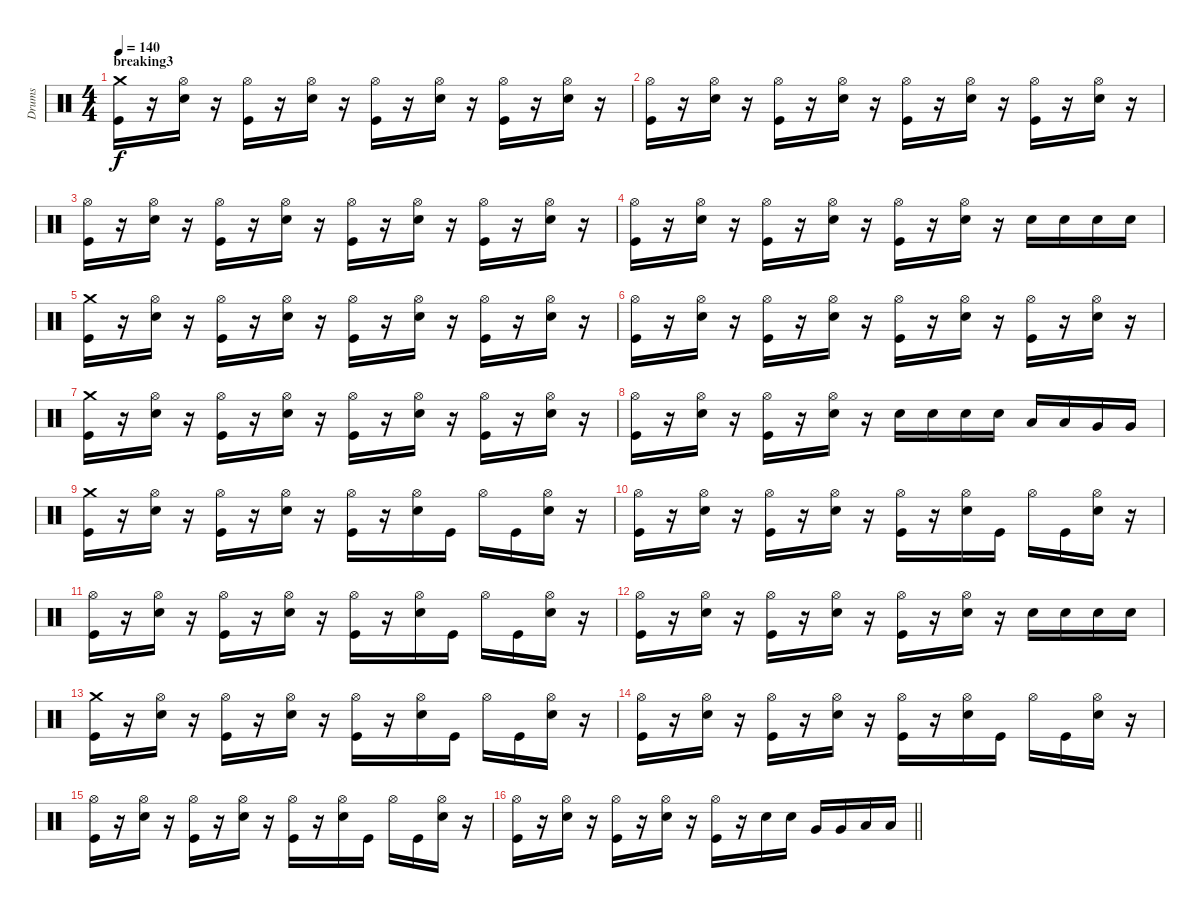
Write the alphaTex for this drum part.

\track ("Drums" "Drums") {instrument percussion}
\staff {score}
\articulation defaults
\ts (4 4)
\section ("" "breaking3")
\tempo 140
\clef neutral
\ks c
("Crash medium (hit)" "Kick (hit)").16{dy f} r.16 ("Hi-Hat (open)" "Snare (hit) 2").16 r.16 ("Hi-Hat (open)" "Kick (hit)").16 r.16 ("Hi-Hat (open)" "Snare (hit) 2").16 r.16 ("Hi-Hat (open)" "Kick (hit)").16 r.16 ("Hi-Hat (open)" "Snare (hit) 2").16 r.16 ("Hi-Hat (open)" "Kick (hit)").16 r.16 ("Hi-Hat (open)" "Snare (hit) 2").16 r.16 |
("Hi-Hat (open)" "Kick (hit)").16 r.16 ("Hi-Hat (open)" "Snare (hit) 2").16 r.16 ("Hi-Hat (open)" "Kick (hit)").16 r.16 ("Hi-Hat (open)" "Snare (hit) 2").16 r.16 ("Hi-Hat (open)" "Kick (hit)").16 r.16 ("Hi-Hat (open)" "Snare (hit) 2").16 r.16 ("Hi-Hat (open)" "Kick (hit)").16 r.16 ("Hi-Hat (open)" "Snare (hit) 2").16 r.16 |
("Hi-Hat (open)" "Kick (hit)").16 r.16 ("Hi-Hat (open)" "Snare (hit) 2").16 r.16 ("Hi-Hat (open)" "Kick (hit)").16 r.16 ("Hi-Hat (open)" "Snare (hit) 2").16 r.16 ("Hi-Hat (open)" "Kick (hit)").16 r.16 ("Hi-Hat (open)" "Snare (hit) 2").16 r.16 ("Hi-Hat (open)" "Kick (hit)").16 r.16 ("Hi-Hat (open)" "Snare (hit) 2").16 r.16 |
("Hi-Hat (open)" "Kick (hit)").16 r.16 ("Hi-Hat (open)" "Snare (hit) 2").16 r.16 ("Hi-Hat (open)" "Kick (hit)").16 r.16 ("Hi-Hat (open)" "Snare (hit) 2").16 r.16 ("Hi-Hat (open)" "Kick (hit)").16 r.16 ("Hi-Hat (open)" "Snare (hit) 2").16 r.16 "Snare (hit) 2".16 "Snare (hit) 2".16 "Snare (hit) 2".16 "Snare (hit) 2".16 |
("Crash medium (hit)" "Kick (hit)").16 r.16 ("Hi-Hat (open)" "Snare (hit) 2").16 r.16 ("Hi-Hat (open)" "Kick (hit)").16 r.16 ("Hi-Hat (open)" "Snare (hit) 2").16 r.16 ("Hi-Hat (open)" "Kick (hit)").16 r.16 ("Hi-Hat (open)" "Snare (hit) 2").16 r.16 ("Hi-Hat (open)" "Kick (hit)").16 r.16 ("Hi-Hat (open)" "Snare (hit) 2").16 r.16 |
("Hi-Hat (open)" "Kick (hit)").16 r.16 ("Hi-Hat (open)" "Snare (hit) 2").16 r.16 ("Hi-Hat (open)" "Kick (hit)").16 r.16 ("Hi-Hat (open)" "Snare (hit) 2").16 r.16 ("Hi-Hat (open)" "Kick (hit)").16 r.16 ("Hi-Hat (open)" "Snare (hit) 2").16 r.16 ("Hi-Hat (open)" "Kick (hit)").16 r.16 ("Hi-Hat (open)" "Snare (hit) 2").16 r.16 |
("Crash medium (hit)" "Kick (hit)").16 r.16 ("Hi-Hat (open)" "Snare (hit) 2").16 r.16 ("Hi-Hat (open)" "Kick (hit)").16 r.16 ("Hi-Hat (open)" "Snare (hit) 2").16 r.16 ("Hi-Hat (open)" "Kick (hit)").16 r.16 ("Hi-Hat (open)" "Snare (hit) 2").16 r.16 ("Hi-Hat (open)" "Kick (hit)").16 r.16 ("Hi-Hat (open)" "Snare (hit) 2").16 r.16 |
("Hi-Hat (open)" "Kick (hit)").16 r.16 ("Hi-Hat (open)" "Snare (hit) 2").16 r.16 ("Hi-Hat (open)" "Kick (hit)").16 r.16 ("Hi-Hat (open)" "Snare (hit) 2").16 r.16 "Snare (hit) 2".16 "Snare (hit) 2".16 "Snare (hit) 2".16 "Snare (hit) 2".16 "Low Tom (hit)".16 "Low Tom (hit)".16 "Very Low Tom (hit)".16 "Very Low Tom (hit)".16 |
("Crash medium (hit)" "Kick (hit)").16 r.16 ("Hi-Hat (open)" "Snare (hit) 2").16 r.16 ("Hi-Hat (open)" "Kick (hit)").16 r.16 ("Hi-Hat (open)" "Snare (hit) 2").16 r.16 ("Hi-Hat (open)" "Kick (hit)").16 r.16 ("Hi-Hat (open)" "Snare (hit) 2").16 "Kick (hit)".16 "Hi-Hat (open)".16 "Kick (hit)".16 ("Hi-Hat (open)" "Snare (hit) 2").16 r.16 |
("Hi-Hat (open)" "Kick (hit)").16 r.16 ("Hi-Hat (open)" "Snare (hit) 2").16 r.16 ("Hi-Hat (open)" "Kick (hit)").16 r.16 ("Hi-Hat (open)" "Snare (hit) 2").16 r.16 ("Hi-Hat (open)" "Kick (hit)").16 r.16 ("Hi-Hat (open)" "Snare (hit) 2").16 "Kick (hit)".16 "Hi-Hat (open)".16 "Kick (hit)".16 ("Hi-Hat (open)" "Snare (hit) 2").16 r.16 |
("Hi-Hat (open)" "Kick (hit)").16 r.16 ("Hi-Hat (open)" "Snare (hit) 2").16 r.16 ("Hi-Hat (open)" "Kick (hit)").16 r.16 ("Hi-Hat (open)" "Snare (hit) 2").16 r.16 ("Hi-Hat (open)" "Kick (hit)").16 r.16 ("Hi-Hat (open)" "Snare (hit) 2").16 "Kick (hit)".16 "Hi-Hat (open)".16 "Kick (hit)".16 ("Hi-Hat (open)" "Snare (hit) 2").16 r.16 |
("Hi-Hat (open)" "Kick (hit)").16 r.16 ("Hi-Hat (open)" "Snare (hit) 2").16 r.16 ("Hi-Hat (open)" "Kick (hit)").16 r.16 ("Hi-Hat (open)" "Snare (hit) 2").16 r.16 ("Hi-Hat (open)" "Kick (hit)").16 r.16 ("Hi-Hat (open)" "Snare (hit) 2").16 r.16 "Snare (hit) 2".16 "Snare (hit) 2".16 "Snare (hit) 2".16 "Snare (hit) 2".16 |
("Crash medium (hit)" "Kick (hit)").16 r.16 ("Hi-Hat (open)" "Snare (hit) 2").16 r.16 ("Hi-Hat (open)" "Kick (hit)").16 r.16 ("Hi-Hat (open)" "Snare (hit) 2").16 r.16 ("Hi-Hat (open)" "Kick (hit)").16 r.16 ("Hi-Hat (open)" "Snare (hit) 2").16 "Kick (hit)".16 "Hi-Hat (open)".16 "Kick (hit)".16 ("Hi-Hat (open)" "Snare (hit) 2").16 r.16 |
("Hi-Hat (open)" "Kick (hit)").16 r.16 ("Hi-Hat (open)" "Snare (hit) 2").16 r.16 ("Hi-Hat (open)" "Kick (hit)").16 r.16 ("Hi-Hat (open)" "Snare (hit) 2").16 r.16 ("Hi-Hat (open)" "Kick (hit)").16 r.16 ("Hi-Hat (open)" "Snare (hit) 2").16 "Kick (hit)".16 "Hi-Hat (open)".16 "Kick (hit)".16 ("Hi-Hat (open)" "Snare (hit) 2").16 r.16 |
("Hi-Hat (open)" "Kick (hit)").16 r.16 ("Hi-Hat (open)" "Snare (hit) 2").16 r.16 ("Hi-Hat (open)" "Kick (hit)").16 r.16 ("Hi-Hat (open)" "Snare (hit) 2").16 r.16 ("Hi-Hat (open)" "Kick (hit)").16 r.16 ("Hi-Hat (open)" "Snare (hit) 2").16 "Kick (hit)".16 "Hi-Hat (open)".16 "Kick (hit)".16 ("Hi-Hat (open)" "Snare (hit) 2").16 r.16 |
\barLineRight lightlight
("Hi-Hat (open)" "Kick (hit)").16 r.16 ("Hi-Hat (open)" "Snare (hit) 2").16 r.16 ("Hi-Hat (open)" "Kick (hit)").16 r.16 ("Hi-Hat (open)" "Snare (hit) 2").16 r.16 ("Hi-Hat (open)" "Kick (hit)").16 r.16 "Snare (hit) 2".16 "Snare (hit) 2".16 "Very Low Tom (hit)".16 "Very Low Tom (hit)".16 "Low Floor Tom (hit)".16 "Low Floor Tom (hit)".16
